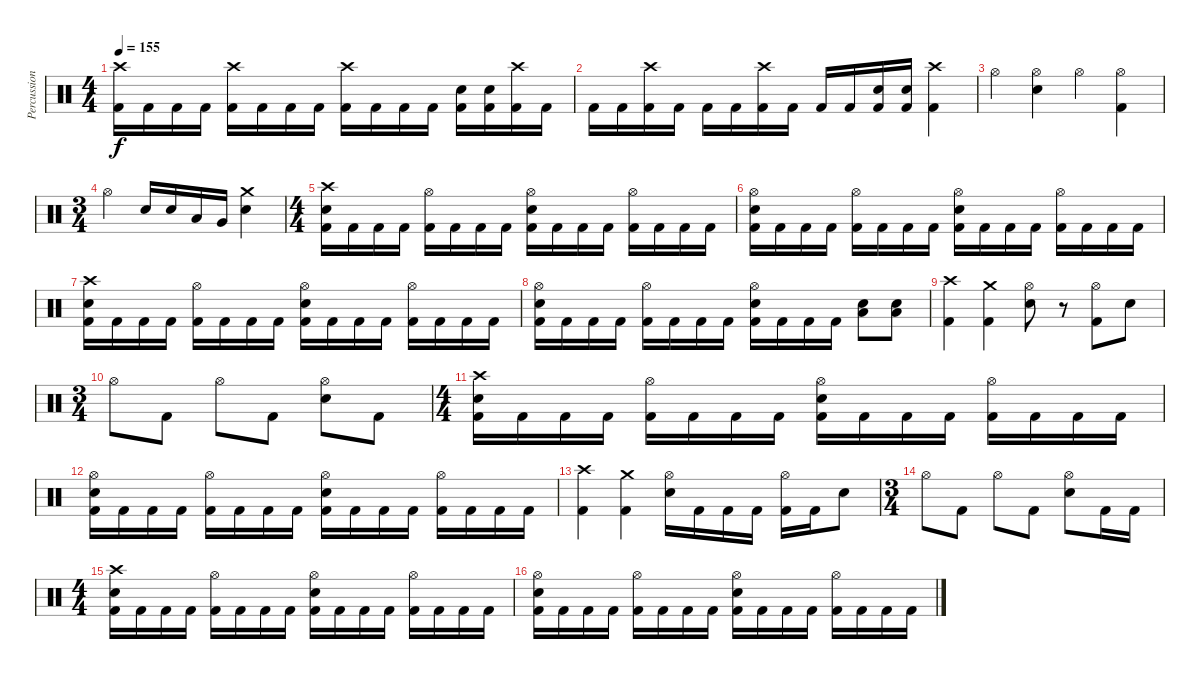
\track ("Percussion" "Percussion") {instrument percussion}
\staff {score}
\articulation defaults
\ts (4 4)
\tempo 155
\clef neutral
\ks c
("Crash high (hit)" "Kick (hit) 2").16{dy f} "Kick (hit) 2".16 "Kick (hit) 2".16 "Kick (hit) 2".16 ("Crash high (hit)" "Kick (hit) 2").16 "Kick (hit) 2".16 "Kick (hit) 2".16 "Kick (hit) 2".16 ("Crash high (hit)" "Kick (hit) 2").16 "Kick (hit) 2".16 "Kick (hit) 2".16 "Kick (hit) 2".16 ("Snare (hit) 2" "Kick (hit) 2").16 ("Snare (hit) 2" "Kick (hit) 2").16 ("Crash high (hit)" "Kick (hit) 2").16 "Kick (hit) 2".16 |
"Kick (hit) 2".16 "Kick (hit) 2".16 ("Crash high (hit)" "Kick (hit) 2").16 "Kick (hit) 2".16 "Kick (hit) 2".16 "Kick (hit) 2".16 ("Crash high (hit)" "Kick (hit) 2").16 "Kick (hit) 2".16 "Kick (hit) 2".16 "Kick (hit) 2".16 ("Snare (hit) 2" "Kick (hit) 2").16 ("Snare (hit) 2" "Kick (hit) 2").16 ("Crash high (hit)" "Kick (hit) 2").4 |
"Hi-Hat (open)".4 ("Hi-Hat (open)" "Snare (hit) 2").4 "Hi-Hat (open)".4 ("Hi-Hat (open)" "Kick (hit) 2").4 |
\ts (3 4)
"Hi-Hat (open)".4 "Snare (hit) 2".16 "Snare (hit) 2".16 "Low Tom (hit)".16 "Very Low Tom (hit)".16 ("Crash medium (hit)" "Snare (hit) 2").4 |
\ts (4 4)
("Crash high (hit)" "Snare (hit) 2" "Kick (hit) 2").16 "Kick (hit) 2".16 "Kick (hit) 2".16 "Kick (hit) 2".16 ("Hi-Hat (open)" "Kick (hit) 2").16 "Kick (hit) 2".16 "Kick (hit) 2".16 "Kick (hit) 2".16 ("Hi-Hat (open)" "Snare (hit) 2" "Kick (hit) 2").16 "Kick (hit) 2".16 "Kick (hit) 2".16 "Kick (hit) 2".16 ("Hi-Hat (open)" "Kick (hit) 2").16 "Kick (hit) 2".16 "Kick (hit) 2".16 "Kick (hit) 2".16 |
("Hi-Hat (open)" "Snare (hit) 2" "Kick (hit) 2").16 "Kick (hit) 2".16 "Kick (hit) 2".16 "Kick (hit) 2".16 ("Hi-Hat (open)" "Kick (hit) 2").16 "Kick (hit) 2".16 "Kick (hit) 2".16 "Kick (hit) 2".16 ("Hi-Hat (open)" "Snare (hit) 2" "Kick (hit) 2").16 "Kick (hit) 2".16 "Kick (hit) 2".16 "Kick (hit) 2".16 ("Hi-Hat (open)" "Kick (hit) 2").16 "Kick (hit) 2".16 "Kick (hit) 2".16 "Kick (hit) 2".16 |
("Crash high (hit)" "Snare (hit) 2" "Kick (hit) 2").16 "Kick (hit) 2".16 "Kick (hit) 2".16 "Kick (hit) 2".16 ("Hi-Hat (open)" "Kick (hit) 2").16 "Kick (hit) 2".16 "Kick (hit) 2".16 "Kick (hit) 2".16 ("Hi-Hat (open)" "Snare (hit) 2" "Kick (hit) 2").16 "Kick (hit) 2".16 "Kick (hit) 2".16 "Kick (hit) 2".16 ("Hi-Hat (open)" "Kick (hit) 2").16 "Kick (hit) 2".16 "Kick (hit) 2".16 "Kick (hit) 2".16 |
("Hi-Hat (open)" "Snare (hit) 2" "Kick (hit) 2").16 "Kick (hit) 2".16 "Kick (hit) 2".16 "Kick (hit) 2".16 ("Hi-Hat (open)" "Kick (hit) 2").16 "Kick (hit) 2".16 "Kick (hit) 2".16 "Kick (hit) 2".16 ("Hi-Hat (open)" "Snare (hit) 2" "Kick (hit) 2").16 "Kick (hit) 2".16 "Kick (hit) 2".16 "Kick (hit) 2".16 ("Snare (hit) 2" "Low Floor Tom (hit)").8 ("Snare (hit) 2" "Low Floor Tom (hit)").8 |
("Crash high (hit)" "Kick (hit) 2").4 ("Crash medium (hit)" "Kick (hit) 2").4 ("Hi-Hat (open)" "Snare (hit) 2").8 r.8 ("Hi-Hat (open)" "Kick (hit) 2").8 "Snare (hit) 2".8 |
\ts (3 4)
"Hi-Hat (open)".8 "Kick (hit) 2".8 "Hi-Hat (open)".8 "Kick (hit) 2".8 ("Hi-Hat (open)" "Snare (hit) 2").8 "Kick (hit) 2".8 |
\ts (4 4)
("Crash high (hit)" "Snare (hit) 2" "Kick (hit) 2").16 "Kick (hit) 2".16 "Kick (hit) 2".16 "Kick (hit) 2".16 ("Hi-Hat (open)" "Kick (hit) 2").16 "Kick (hit) 2".16 "Kick (hit) 2".16 "Kick (hit) 2".16 ("Hi-Hat (open)" "Snare (hit) 2" "Kick (hit) 2").16 "Kick (hit) 2".16 "Kick (hit) 2".16 "Kick (hit) 2".16 ("Hi-Hat (open)" "Kick (hit) 2").16 "Kick (hit) 2".16 "Kick (hit) 2".16 "Kick (hit) 2".16 |
("Hi-Hat (open)" "Snare (hit) 2" "Kick (hit) 2").16 "Kick (hit) 2".16 "Kick (hit) 2".16 "Kick (hit) 2".16 ("Hi-Hat (open)" "Kick (hit) 2").16 "Kick (hit) 2".16 "Kick (hit) 2".16 "Kick (hit) 2".16 ("Hi-Hat (open)" "Snare (hit) 2" "Kick (hit) 2").16 "Kick (hit) 2".16 "Kick (hit) 2".16 "Kick (hit) 2".16 ("Hi-Hat (open)" "Kick (hit) 2").16 "Kick (hit) 2".16 "Kick (hit) 2".16 "Kick (hit) 2".16 |
("Crash high (hit)" "Kick (hit) 2").4 ("Crash medium (hit)" "Kick (hit) 2").4 ("Hi-Hat (open)" "Snare (hit) 2").16 "Kick (hit) 2".16 "Kick (hit) 2".16 "Kick (hit) 2".16 ("Hi-Hat (open)" "Kick (hit) 2").16 "Kick (hit) 2".16 "Snare (hit) 2".8 |
\ts (3 4)
"Hi-Hat (open)".8 "Kick (hit) 2".8 "Hi-Hat (open)".8 "Kick (hit) 2".8 ("Hi-Hat (open)" "Snare (hit) 2").8 "Kick (hit) 2".16 "Kick (hit) 2".16 |
\ts (4 4)
("Crash high (hit)" "Snare (hit) 2" "Kick (hit) 2").16 "Kick (hit) 2".16 "Kick (hit) 2".16 "Kick (hit) 2".16 ("Hi-Hat (open)" "Kick (hit) 2").16 "Kick (hit) 2".16 "Kick (hit) 2".16 "Kick (hit) 2".16 ("Hi-Hat (open)" "Snare (hit) 2" "Kick (hit) 2").16 "Kick (hit) 2".16 "Kick (hit) 2".16 "Kick (hit) 2".16 ("Hi-Hat (open)" "Kick (hit) 2").16 "Kick (hit) 2".16 "Kick (hit) 2".16 "Kick (hit) 2".16 |
("Hi-Hat (open)" "Snare (hit) 2" "Kick (hit) 2").16 "Kick (hit) 2".16 "Kick (hit) 2".16 "Kick (hit) 2".16 ("Hi-Hat (open)" "Kick (hit) 2").16 "Kick (hit) 2".16 "Kick (hit) 2".16 "Kick (hit) 2".16 ("Hi-Hat (open)" "Snare (hit) 2" "Kick (hit) 2").16 "Kick (hit) 2".16 "Kick (hit) 2".16 "Kick (hit) 2".16 ("Hi-Hat (open)" "Kick (hit) 2").16 "Kick (hit) 2".16 "Kick (hit) 2".16 "Kick (hit) 2".16
